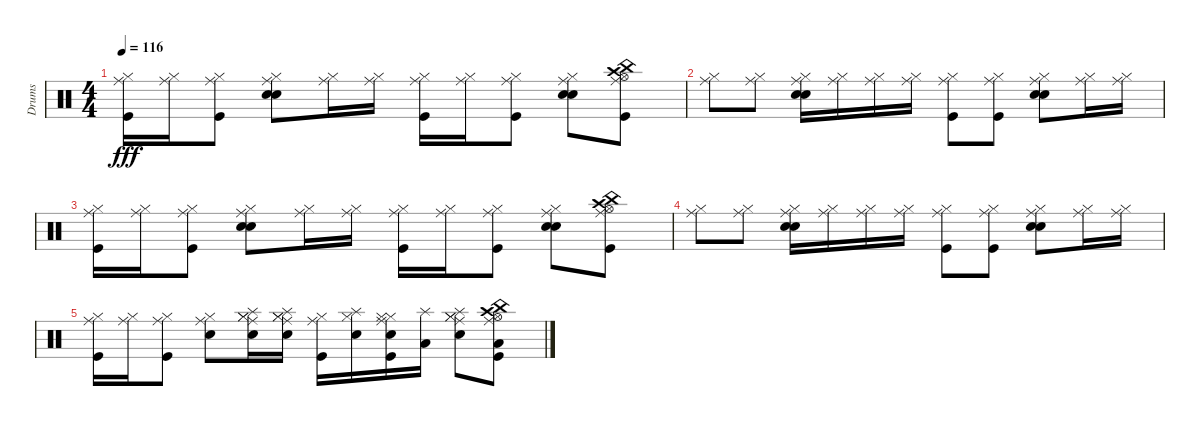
\track ("Drums" "Drums") {instrument percussion}
\staff {score}
\articulation defaults
\ts (4 4)
\tempo 116
\clef neutral
\ks c
("Ride (middle)" "Hi-Hat (closed)" "Kick (hit)").16{dy fff} ("Ride (middle)" "Hi-Hat (closed)").16 ("Ride (middle)" "Hi-Hat (closed)" "Kick (hit)").8 ("Ride (middle)" "Hi-Hat (closed)" "Snare (hit) 2" "Electric Snare (hit)").8 ("Ride (middle)" "Hi-Hat (closed)").16 ("Ride (middle)" "Hi-Hat (closed)").16 ("Ride (middle)" "Hi-Hat (closed)" "Kick (hit)").16 ("Ride (middle)" "Hi-Hat (closed)").16 ("Ride (middle)" "Hi-Hat (closed)" "Kick (hit)").8 ("Ride (middle)" "Hi-Hat (closed)" "Snare (hit) 2" "Electric Snare (hit)").8 ("Crash high (hit)" "China (hit)" "Ride (middle)" "Hi-Hat (open)" "Kick (hit)").8 |
("Ride (middle)" "Hi-Hat (closed)").8 ("Ride (middle)" "Hi-Hat (closed)").8 ("Snare (hit) 2" "Electric Snare (hit)" "Ride (middle)" "Hi-Hat (closed)").16 ("Ride (middle)" "Hi-Hat (closed)").16 ("Ride (middle)" "Hi-Hat (closed)").16 ("Ride (middle)" "Hi-Hat (closed)").16 ("Ride (middle)" "Hi-Hat (closed)" "Kick (hit)").8 ("Kick (hit)" "Ride (middle)" "Hi-Hat (closed)").8 ("Ride (middle)" "Hi-Hat (closed)" "Snare (hit) 2" "Electric Snare (hit)").8 ("Ride (middle)" "Hi-Hat (closed)").16 ("Ride (middle)" "Hi-Hat (closed)").16 |
("Ride (middle)" "Hi-Hat (closed)" "Kick (hit)").16 ("Ride (middle)" "Hi-Hat (closed)").16 ("Ride (middle)" "Hi-Hat (closed)" "Kick (hit)").8 ("Ride (middle)" "Hi-Hat (closed)" "Snare (hit) 2" "Electric Snare (hit)").8 ("Ride (middle)" "Hi-Hat (closed)").16 ("Ride (middle)" "Hi-Hat (closed)").16 ("Ride (middle)" "Hi-Hat (closed)" "Kick (hit)").16 ("Ride (middle)" "Hi-Hat (closed)").16 ("Ride (middle)" "Hi-Hat (closed)" "Kick (hit)").8 ("Snare (hit) 2" "Electric Snare (hit)" "Ride (middle)" "Hi-Hat (closed)").8 ("Crash high (hit)" "China (hit)" "Ride (middle)" "Hi-Hat (open)" "Kick (hit)").8 |
("Ride (middle)" "Hi-Hat (closed)").8 ("Ride (middle)" "Hi-Hat (closed)").8 ("Snare (hit) 2" "Electric Snare (hit)" "Ride (middle)" "Hi-Hat (closed)").16 ("Ride (middle)" "Hi-Hat (closed)").16 ("Ride (middle)" "Hi-Hat (closed)").16 ("Ride (middle)" "Hi-Hat (closed)").16 ("Ride (middle)" "Hi-Hat (closed)" "Kick (hit)").8 ("Ride (middle)" "Hi-Hat (closed)" "Kick (hit)").8 ("Snare (hit) 2" "Electric Snare (hit)" "Ride (middle)" "Hi-Hat (closed)").8 ("Ride (middle)" "Hi-Hat (closed)").16 ("Ride (middle)" "Hi-Hat (closed)").16 |
("Ride (middle)" "Hi-Hat (closed)" "Kick (hit)").16 ("Ride (middle)" "Hi-Hat (closed)").16 ("Ride (middle)" "Hi-Hat (closed)" "Kick (hit)").8 ("Ride (middle)" "Hi-Hat (closed)" "Snare (hit) 2").8 ("Hi-Hat (closed)" "Snare (hit) 2" "Splash (hit)" "Ride (middle)" "Hi-Hat (closed)").16 ("Snare (hit) 2" "Hi-Hat (closed)" "Splash (hit)" "Ride (middle)" "Hi-Hat (closed)").16 ("Ride (middle)" "Hi-Hat (closed)" "Kick (hit)").16 ("Hi-Hat (closed)" "Snare (hit) 2" "Splash (hit)").16 ("Hi-Hat (closed)" "Snare (hit) 2" "Ride (middle)" "Hi-Hat (closed)" "Kick (hit)").16 ("Low Floor Tom (hit)" "Splash (hit)").16 ("Snare (hit) 2" "Hi-Hat (closed)" "Splash (hit)" "Ride (middle)" "Hi-Hat (closed)").8 ("Kick (hit)" "Crash high (hit)" "China (hit)" "Low Floor Tom (hit)" "Ride (middle)" "Hi-Hat (open)").8
